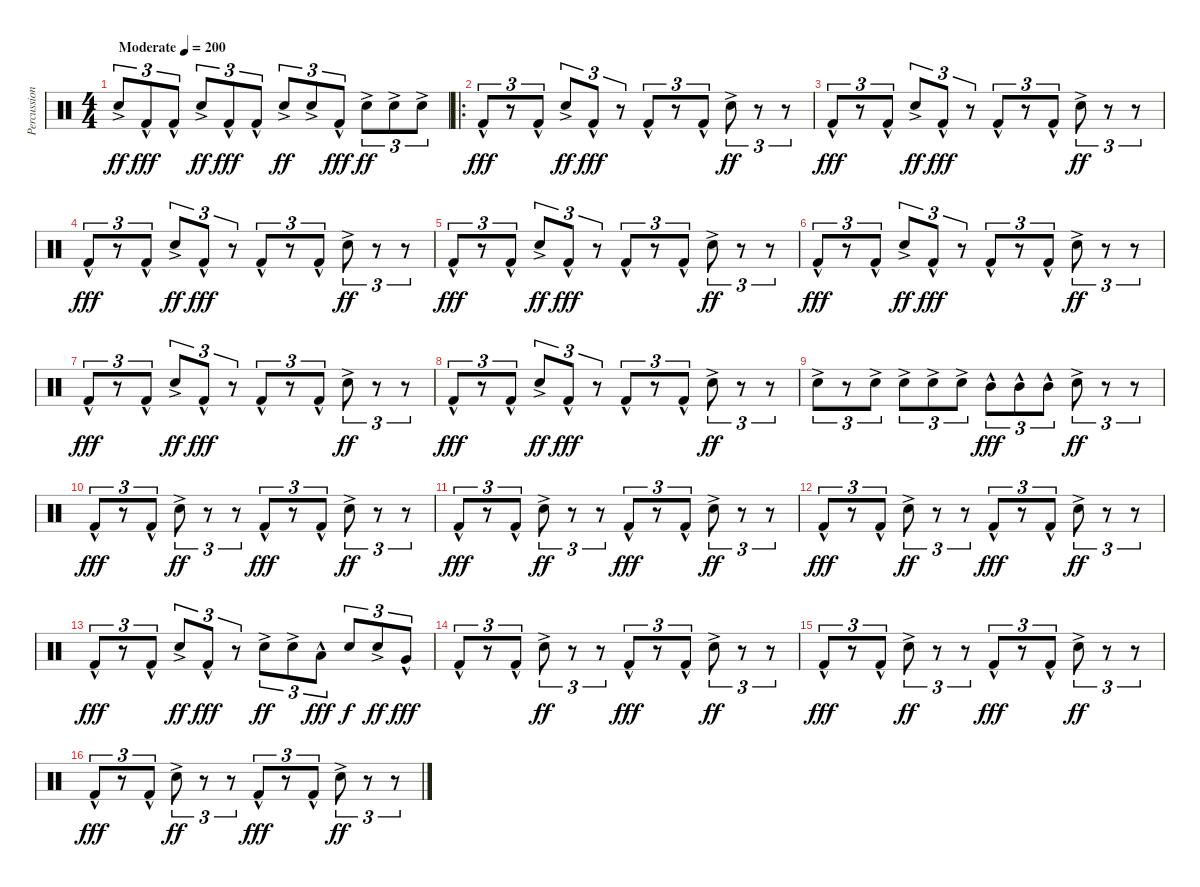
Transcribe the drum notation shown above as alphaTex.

\track ("Percussion" "Percussion") {instrument percussion}
\staff {score}
\articulation defaults
\ts (4 4)
\tempo (200 "Moderate")
\clef neutral
\ks c "Snare (hit) 2"{ac}.8{tu (3 2) dy ff} "Kick (hit) 2"{hac}.8{tu (3 2) dy fff} "Kick (hit) 2"{hac}.8{tu (3 2)} "Snare (hit) 2"{ac}.8{tu (3 2) dy ff} "Kick (hit) 2"{hac}.8{tu (3 2) dy fff} "Kick (hit) 2"{hac}.8{tu (3 2)} "Snare (hit) 2"{ac}.8{tu (3 2) dy ff} "Snare (hit) 2"{ac}.8{tu (3 2)} "Kick (hit) 2"{hac}.8{tu (3 2) dy fff} "Snare (hit) 2"{ac}.8{tu (3 2) dy ff} "Snare (hit) 2"{ac}.8{tu (3 2)} "Snare (hit) 2"{ac}.8{tu (3 2)}
|
\ro "Kick (hit) 2"{hac}.8{tu (3 2) dy fff}
r.8{tu (3 2)} "Kick (hit) 2"{hac}.8{tu (3 2)} "Snare (hit) 2"{ac}.8{tu (3 2) dy ff} "Kick (hit) 2"{hac}.8{tu (3 2) dy fff} r.8{tu (3 2)} "Kick (hit) 2"{hac}.8{tu (3 2)} r.8{tu (3 2)} "Kick (hit) 2"{hac}.8{tu (3 2)} "Snare (hit) 2"{ac}.8{tu (3 2) dy ff} r.8{tu (3 2)} r.8{tu (3 2)} |
"Kick (hit) 2"{hac}.8{tu (3 2) dy fff} r.8{tu (3 2)} "Kick (hit) 2"{hac}.8{tu (3 2)} "Snare (hit) 2"{ac}.8{tu (3 2) dy ff} "Kick (hit) 2"{hac}.8{tu (3 2) dy fff} r.8{tu (3 2)} "Kick (hit) 2"{hac}.8{tu (3 2)} r.8{tu (3 2)} "Kick (hit) 2"{hac}.8{tu (3 2)} "Snare (hit) 2"{ac}.8{tu (3 2) dy ff} r.8{tu (3 2)} r.8{tu (3 2)} |
"Kick (hit) 2"{hac}.8{tu (3 2) dy fff} r.8{tu (3 2)} "Kick (hit) 2"{hac}.8{tu (3 2)} "Snare (hit) 2"{ac}.8{tu (3 2) dy ff} "Kick (hit) 2"{hac}.8{tu (3 2) dy fff} r.8{tu (3 2)} "Kick (hit) 2"{hac}.8{tu (3 2)} r.8{tu (3 2)} "Kick (hit) 2"{hac}.8{tu (3 2)} "Snare (hit) 2"{ac}.8{tu (3 2) dy ff} r.8{tu (3 2)} r.8{tu (3 2)} |
"Kick (hit) 2"{hac}.8{tu (3 2) dy fff} r.8{tu (3 2)} "Kick (hit) 2"{hac}.8{tu (3 2)} "Snare (hit) 2"{ac}.8{tu (3 2) dy ff} "Kick (hit) 2"{hac}.8{tu (3 2) dy fff} r.8{tu (3 2)} "Kick (hit) 2"{hac}.8{tu (3 2)} r.8{tu (3 2)} "Kick (hit) 2"{hac}.8{tu (3 2)} "Snare (hit) 2"{ac}.8{tu (3 2) dy ff} r.8{tu (3 2)} r.8{tu (3 2)} |
"Kick (hit) 2"{hac}.8{tu (3 2) dy fff} r.8{tu (3 2)} "Kick (hit) 2"{hac}.8{tu (3 2)} "Snare (hit) 2"{ac}.8{tu (3 2) dy ff} "Kick (hit) 2"{hac}.8{tu (3 2) dy fff} r.8{tu (3 2)} "Kick (hit) 2"{hac}.8{tu (3 2)} r.8{tu (3 2)} "Kick (hit) 2"{hac}.8{tu (3 2)} "Snare (hit) 2"{ac}.8{tu (3 2) dy ff} r.8{tu (3 2)} r.8{tu (3 2)} |
"Kick (hit) 2"{hac}.8{tu (3 2) dy fff} r.8{tu (3 2)} "Kick (hit) 2"{hac}.8{tu (3 2)} "Snare (hit) 2"{ac}.8{tu (3 2) dy ff} "Kick (hit) 2"{hac}.8{tu (3 2) dy fff} r.8{tu (3 2)} "Kick (hit) 2"{hac}.8{tu (3 2)} r.8{tu (3 2)} "Kick (hit) 2"{hac}.8{tu (3 2)} "Snare (hit) 2"{ac}.8{tu (3 2) dy ff} r.8{tu (3 2)} r.8{tu (3 2)} |
"Kick (hit) 2"{hac}.8{tu (3 2) dy fff} r.8{tu (3 2)} "Kick (hit) 2"{hac}.8{tu (3 2)} "Snare (hit) 2"{ac}.8{tu (3 2) dy ff} "Kick (hit) 2"{hac}.8{tu (3 2) dy fff} r.8{tu (3 2)} "Kick (hit) 2"{hac}.8{tu (3 2)} r.8{tu (3 2)} "Kick (hit) 2"{hac}.8{tu (3 2)} "Snare (hit) 2"{ac}.8{tu (3 2) dy ff} r.8{tu (3 2)} r.8{tu (3 2)} |
"Snare (hit) 2"{ac}.8{tu (3 2)} r.8{tu (3 2)} "Snare (hit) 2"{ac}.8{tu (3 2)} "Snare (hit) 2"{ac}.8{tu (3 2)} "Snare (hit) 2"{ac}.8{tu (3 2)} "Snare (hit) 2"{ac}.8{tu (3 2)} "Mid Tom (hit)"{hac}.8{tu (3 2) dy fff} "Mid Tom (hit)"{hac}.8{tu (3 2)} "Mid Tom (hit)"{hac}.8{tu (3 2)} "Snare (hit) 2"{ac}.8{tu (3 2) dy ff} r.8{tu (3 2)} r.8{tu (3 2)} |
"Kick (hit) 2"{hac}.8{tu (3 2) dy fff} r.8{tu (3 2)} "Kick (hit) 2"{hac}.8{tu (3 2)} "Snare (hit) 2"{ac}.8{tu (3 2) dy ff} r.8{tu (3 2)} r.8{tu (3 2)} "Kick (hit) 2"{hac}.8{tu (3 2) dy fff} r.8{tu (3 2)} "Kick (hit) 2"{hac}.8{tu (3 2)} "Snare (hit) 2"{ac}.8{tu (3 2) dy ff} r.8{tu (3 2)} r.8{tu (3 2)} |
"Kick (hit) 2"{hac}.8{tu (3 2) dy fff} r.8{tu (3 2)} "Kick (hit) 2"{hac}.8{tu (3 2)} "Snare (hit) 2"{ac}.8{tu (3 2) dy ff} r.8{tu (3 2)} r.8{tu (3 2)} "Kick (hit) 2"{hac}.8{tu (3 2) dy fff} r.8{tu (3 2)} "Kick (hit) 2"{hac}.8{tu (3 2)} "Snare (hit) 2"{ac}.8{tu (3 2) dy ff} r.8{tu (3 2)} r.8{tu (3 2)} |
"Kick (hit) 2"{hac}.8{tu (3 2) dy fff} r.8{tu (3 2)} "Kick (hit) 2"{hac}.8{tu (3 2)} "Snare (hit) 2"{ac}.8{tu (3 2) dy ff} r.8{tu (3 2)} r.8{tu (3 2)} "Kick (hit) 2"{hac}.8{tu (3 2) dy fff} r.8{tu (3 2)} "Kick (hit) 2"{hac}.8{tu (3 2)} "Snare (hit) 2"{ac}.8{tu (3 2) dy ff} r.8{tu (3 2)} r.8{tu (3 2)} |
"Kick (hit) 2"{hac}.8{tu (3 2) dy fff} r.8{tu (3 2)} "Kick (hit) 2"{hac}.8{tu (3 2)} "Snare (hit) 2"{ac}.8{tu (3 2) dy ff} "Kick (hit) 2"{hac}.8{tu (3 2) dy fff} r.8{tu (3 2)} "Snare (hit) 2"{ac}.8{tu (3 2) dy ff} "Snare (hit) 2"{ac}.8{tu (3 2)} "Low Tom (hit)"{hac}.8{tu (3 2) dy fff} "Snare (hit) 2".8{tu (3 2) dy f} "Snare (hit) 2"{ac}.8{tu (3 2) dy ff} "Very Low Tom (hit)"{hac}.8{tu (3 2) dy fff} |
"Kick (hit) 2"{hac}.8{tu (3 2)} r.8{tu (3 2)} "Kick (hit) 2"{hac}.8{tu (3 2)} "Snare (hit) 2"{ac}.8{tu (3 2) dy ff} r.8{tu (3 2)} r.8{tu (3 2)} "Kick (hit) 2"{hac}.8{tu (3 2) dy fff} r.8{tu (3 2)} "Kick (hit) 2"{hac}.8{tu (3 2)} "Snare (hit) 2"{ac}.8{tu (3 2) dy ff} r.8{tu (3 2)} r.8{tu (3 2)} |
"Kick (hit) 2"{hac}.8{tu (3 2) dy fff} r.8{tu (3 2)} "Kick (hit) 2"{hac}.8{tu (3 2)} "Snare (hit) 2"{ac}.8{tu (3 2) dy ff} r.8{tu (3 2)} r.8{tu (3 2)} "Kick (hit) 2"{hac}.8{tu (3 2) dy fff} r.8{tu (3 2)} "Kick (hit) 2"{hac}.8{tu (3 2)} "Snare (hit) 2"{ac}.8{tu (3 2) dy ff} r.8{tu (3 2)} r.8{tu (3 2)} |
"Kick (hit) 2"{hac}.8{tu (3 2) dy fff} r.8{tu (3 2)} "Kick (hit) 2"{hac}.8{tu (3 2)} "Snare (hit) 2"{ac}.8{tu (3 2) dy ff} r.8{tu (3 2)} r.8{tu (3 2)} "Kick (hit) 2"{hac}.8{tu (3 2) dy fff} r.8{tu (3 2)} "Kick (hit) 2"{hac}.8{tu (3 2)} "Snare (hit) 2"{ac}.8{tu (3 2) dy ff} r.8{tu (3 2)} r.8{tu (3 2)}
